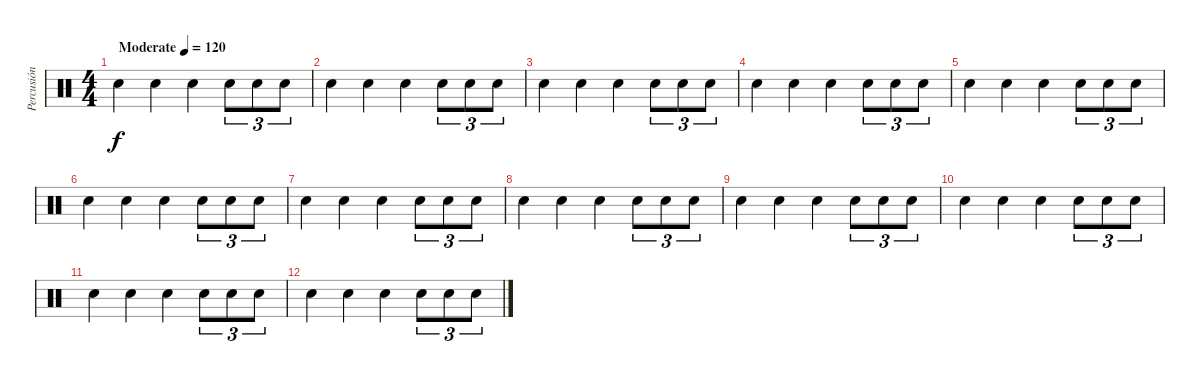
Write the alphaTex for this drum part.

\track ("Percusión" "Percusión") {instrument percussion}
\staff {score}
\articulation defaults
\ts (4 4)
\tempo (120 "Moderate")
\clef neutral
\ks c "Snare (hit) 2".4{dy f} "Snare (hit) 2".4 "Snare (hit) 2".4 "Snare (hit) 2".8{tu (3 2)} "Snare (hit) 2".8{tu (3 2)} "Snare (hit) 2".8{tu (3 2)}
|
"Snare (hit) 2".4 "Snare (hit) 2".4 "Snare (hit) 2".4 "Snare (hit) 2".8{tu (3 2)} "Snare (hit) 2".8{tu (3 2)} "Snare (hit) 2".8{tu (3 2)} |
"Snare (hit) 2".4 "Snare (hit) 2".4 "Snare (hit) 2".4 "Snare (hit) 2".8{tu (3 2)} "Snare (hit) 2".8{tu (3 2)} "Snare (hit) 2".8{tu (3 2)} |
"Snare (hit) 2".4 "Snare (hit) 2".4 "Snare (hit) 2".4 "Snare (hit) 2".8{tu (3 2)} "Snare (hit) 2".8{tu (3 2)} "Snare (hit) 2".8{tu (3 2)} |
"Snare (hit) 2".4 "Snare (hit) 2".4 "Snare (hit) 2".4 "Snare (hit) 2".8{tu (3 2)} "Snare (hit) 2".8{tu (3 2)} "Snare (hit) 2".8{tu (3 2)} |
"Snare (hit) 2".4 "Snare (hit) 2".4 "Snare (hit) 2".4 "Snare (hit) 2".8{tu (3 2)} "Snare (hit) 2".8{tu (3 2)} "Snare (hit) 2".8{tu (3 2)} |
"Snare (hit) 2".4 "Snare (hit) 2".4 "Snare (hit) 2".4 "Snare (hit) 2".8{tu (3 2)} "Snare (hit) 2".8{tu (3 2)} "Snare (hit) 2".8{tu (3 2)} |
"Snare (hit) 2".4 "Snare (hit) 2".4 "Snare (hit) 2".4 "Snare (hit) 2".8{tu (3 2)} "Snare (hit) 2".8{tu (3 2)} "Snare (hit) 2".8{tu (3 2)} |
"Snare (hit) 2".4 "Snare (hit) 2".4 "Snare (hit) 2".4 "Snare (hit) 2".8{tu (3 2)} "Snare (hit) 2".8{tu (3 2)} "Snare (hit) 2".8{tu (3 2)} |
"Snare (hit) 2".4 "Snare (hit) 2".4 "Snare (hit) 2".4 "Snare (hit) 2".8{tu (3 2)} "Snare (hit) 2".8{tu (3 2)} "Snare (hit) 2".8{tu (3 2)} |
"Snare (hit) 2".4 "Snare (hit) 2".4 "Snare (hit) 2".4 "Snare (hit) 2".8{tu (3 2)} "Snare (hit) 2".8{tu (3 2)} "Snare (hit) 2".8{tu (3 2)} |
"Snare (hit) 2".4 "Snare (hit) 2".4 "Snare (hit) 2".4 "Snare (hit) 2".8{tu (3 2)} "Snare (hit) 2".8{tu (3 2)} "Snare (hit) 2".8{tu (3 2)}
